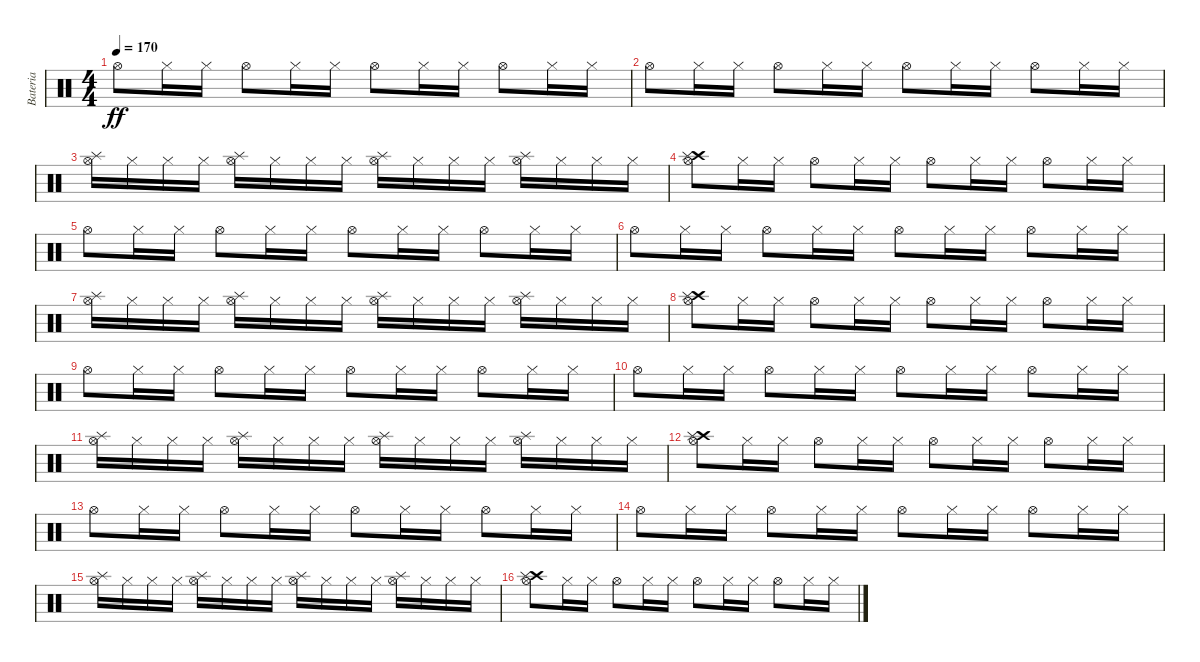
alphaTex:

\track ("Bateria" "Bateria") {instrument percussion}
\staff {score}
\articulation defaults
\ts (4 4)
\tempo 170
\clef neutral
\ks c "Hi-Hat (open)".8{dy ff} "Hi-Hat (closed)".16 "Hi-Hat (closed)".16 "Hi-Hat (open)".8 "Hi-Hat (closed)".16 "Hi-Hat (closed)".16 "Hi-Hat (open)".8 "Hi-Hat (closed)".16 "Hi-Hat (closed)".16 "Hi-Hat (open)".8 "Hi-Hat (closed)".16 "Hi-Hat (closed)".16
|
"Hi-Hat (open)".8 "Hi-Hat (closed)".16 "Hi-Hat (closed)".16 "Hi-Hat (open)".8 "Hi-Hat (closed)".16 "Hi-Hat (closed)".16 "Hi-Hat (open)".8 "Hi-Hat (closed)".16 "Hi-Hat (closed)".16 "Hi-Hat (open)".8 "Hi-Hat (closed)".16 "Hi-Hat (closed)".16 |
("Hi-Hat (open)" "Splash (hit)").16 "Hi-Hat (closed)".16 "Hi-Hat (closed)".16 "Hi-Hat (closed)".16 ("Hi-Hat (open)" "Splash (hit)").16 "Hi-Hat (closed)".16 "Hi-Hat (closed)".16 "Hi-Hat (closed)".16 ("Hi-Hat (open)" "Splash (hit)").16 "Hi-Hat (closed)".16 "Hi-Hat (closed)".16 "Hi-Hat (closed)".16 ("Hi-Hat (open)" "Splash (hit)").16 "Hi-Hat (closed)".16 "Hi-Hat (closed)".16 "Hi-Hat (closed)".16 |
("Hi-Hat (open)" "Crash high (hit)" "Splash (hit)").8 "Hi-Hat (closed)".16 "Hi-Hat (closed)".16 "Hi-Hat (open)".8 "Hi-Hat (closed)".16 "Hi-Hat (closed)".16 "Hi-Hat (open)".8 "Hi-Hat (closed)".16 "Hi-Hat (closed)".16 "Hi-Hat (open)".8 "Hi-Hat (closed)".16 "Hi-Hat (closed)".16 |
"Hi-Hat (open)".8 "Hi-Hat (closed)".16 "Hi-Hat (closed)".16 "Hi-Hat (open)".8 "Hi-Hat (closed)".16 "Hi-Hat (closed)".16 "Hi-Hat (open)".8 "Hi-Hat (closed)".16 "Hi-Hat (closed)".16 "Hi-Hat (open)".8 "Hi-Hat (closed)".16 "Hi-Hat (closed)".16 |
"Hi-Hat (open)".8 "Hi-Hat (closed)".16 "Hi-Hat (closed)".16 "Hi-Hat (open)".8 "Hi-Hat (closed)".16 "Hi-Hat (closed)".16 "Hi-Hat (open)".8 "Hi-Hat (closed)".16 "Hi-Hat (closed)".16 "Hi-Hat (open)".8 "Hi-Hat (closed)".16 "Hi-Hat (closed)".16 |
("Hi-Hat (open)" "Splash (hit)").16 "Hi-Hat (closed)".16 "Hi-Hat (closed)".16 "Hi-Hat (closed)".16 ("Hi-Hat (open)" "Splash (hit)").16 "Hi-Hat (closed)".16 "Hi-Hat (closed)".16 "Hi-Hat (closed)".16 ("Hi-Hat (open)" "Splash (hit)").16 "Hi-Hat (closed)".16 "Hi-Hat (closed)".16 "Hi-Hat (closed)".16 ("Hi-Hat (open)" "Splash (hit)").16 "Hi-Hat (closed)".16 "Hi-Hat (closed)".16 "Hi-Hat (closed)".16 |
("Hi-Hat (open)" "Crash high (hit)" "Splash (hit)").8 "Hi-Hat (closed)".16 "Hi-Hat (closed)".16 "Hi-Hat (open)".8 "Hi-Hat (closed)".16 "Hi-Hat (closed)".16 "Hi-Hat (open)".8 "Hi-Hat (closed)".16 "Hi-Hat (closed)".16 "Hi-Hat (open)".8 "Hi-Hat (closed)".16 "Hi-Hat (closed)".16 |
"Hi-Hat (open)".8 "Hi-Hat (closed)".16 "Hi-Hat (closed)".16 "Hi-Hat (open)".8 "Hi-Hat (closed)".16 "Hi-Hat (closed)".16 "Hi-Hat (open)".8 "Hi-Hat (closed)".16 "Hi-Hat (closed)".16 "Hi-Hat (open)".8 "Hi-Hat (closed)".16 "Hi-Hat (closed)".16 |
"Hi-Hat (open)".8 "Hi-Hat (closed)".16 "Hi-Hat (closed)".16 "Hi-Hat (open)".8 "Hi-Hat (closed)".16 "Hi-Hat (closed)".16 "Hi-Hat (open)".8 "Hi-Hat (closed)".16 "Hi-Hat (closed)".16 "Hi-Hat (open)".8 "Hi-Hat (closed)".16 "Hi-Hat (closed)".16 |
("Hi-Hat (open)" "Splash (hit)").16 "Hi-Hat (closed)".16 "Hi-Hat (closed)".16 "Hi-Hat (closed)".16 ("Hi-Hat (open)" "Splash (hit)").16 "Hi-Hat (closed)".16 "Hi-Hat (closed)".16 "Hi-Hat (closed)".16 ("Hi-Hat (open)" "Splash (hit)").16 "Hi-Hat (closed)".16 "Hi-Hat (closed)".16 "Hi-Hat (closed)".16 ("Hi-Hat (open)" "Splash (hit)").16 "Hi-Hat (closed)".16 "Hi-Hat (closed)".16 "Hi-Hat (closed)".16 |
("Hi-Hat (open)" "Crash high (hit)" "Splash (hit)").8 "Hi-Hat (closed)".16 "Hi-Hat (closed)".16 "Hi-Hat (open)".8 "Hi-Hat (closed)".16 "Hi-Hat (closed)".16 "Hi-Hat (open)".8 "Hi-Hat (closed)".16 "Hi-Hat (closed)".16 "Hi-Hat (open)".8 "Hi-Hat (closed)".16 "Hi-Hat (closed)".16 |
"Hi-Hat (open)".8 "Hi-Hat (closed)".16 "Hi-Hat (closed)".16 "Hi-Hat (open)".8 "Hi-Hat (closed)".16 "Hi-Hat (closed)".16 "Hi-Hat (open)".8 "Hi-Hat (closed)".16 "Hi-Hat (closed)".16 "Hi-Hat (open)".8 "Hi-Hat (closed)".16 "Hi-Hat (closed)".16 |
"Hi-Hat (open)".8 "Hi-Hat (closed)".16 "Hi-Hat (closed)".16 "Hi-Hat (open)".8 "Hi-Hat (closed)".16 "Hi-Hat (closed)".16 "Hi-Hat (open)".8 "Hi-Hat (closed)".16 "Hi-Hat (closed)".16 "Hi-Hat (open)".8 "Hi-Hat (closed)".16 "Hi-Hat (closed)".16 |
("Hi-Hat (open)" "Splash (hit)").16 "Hi-Hat (closed)".16 "Hi-Hat (closed)".16 "Hi-Hat (closed)".16 ("Hi-Hat (open)" "Splash (hit)").16 "Hi-Hat (closed)".16 "Hi-Hat (closed)".16 "Hi-Hat (closed)".16 ("Hi-Hat (open)" "Splash (hit)").16 "Hi-Hat (closed)".16 "Hi-Hat (closed)".16 "Hi-Hat (closed)".16 ("Hi-Hat (open)" "Splash (hit)").16 "Hi-Hat (closed)".16 "Hi-Hat (closed)".16 "Hi-Hat (closed)".16 |
("Hi-Hat (open)" "Crash high (hit)" "Splash (hit)").8 "Hi-Hat (closed)".16 "Hi-Hat (closed)".16 "Hi-Hat (open)".8 "Hi-Hat (closed)".16 "Hi-Hat (closed)".16 "Hi-Hat (open)".8 "Hi-Hat (closed)".16 "Hi-Hat (closed)".16 "Hi-Hat (open)".8 "Hi-Hat (closed)".16 "Hi-Hat (closed)".16
